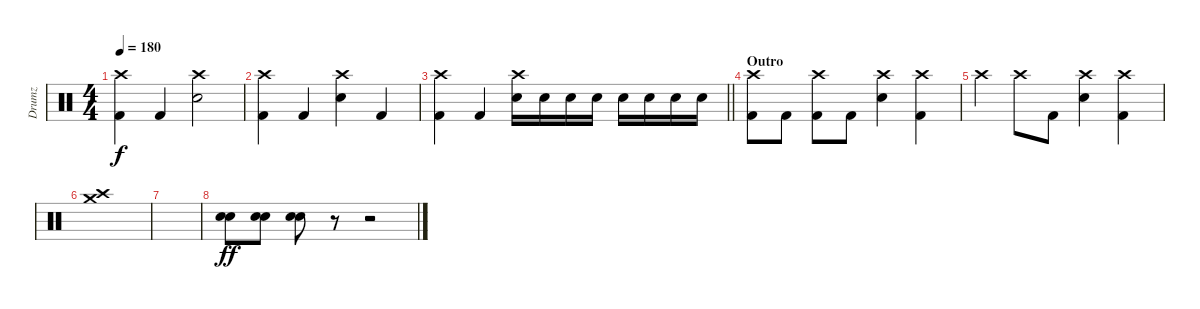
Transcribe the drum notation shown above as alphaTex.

\track ("Drumz" "Drumz") {instrument percussion}
\staff {score}
\articulation defaults
\ts (4 4)
\tempo 180
\clef neutral
\ks c
("Crash high (hit)" "Kick (hit) 2").4{dy f} "Kick (hit) 2".4 ("Crash high (hit)" "Snare (hit) 2").2 |
("Kick (hit) 2" "Crash high (hit)").4 "Kick (hit) 2".4 ("Snare (hit) 2" "Crash high (hit)").4 "Kick (hit) 2".4 |
\barLineRight lightlight
("Crash high (hit)" "Kick (hit) 2").4 "Kick (hit) 2".4 ("Crash high (hit)" "Electric Snare (hit)").16 "Electric Snare (hit)".16 "Electric Snare (hit)".16 "Electric Snare (hit)".16 "Electric Snare (hit)".16 "Electric Snare (hit)".16 "Electric Snare (hit)".16 "Electric Snare (hit)".16 |
\section ("" "Outro")
("Kick (hit) 2" "Crash high (hit)").8 "Kick (hit) 2".8 ("Kick (hit) 2" "Crash high (hit)").8 "Kick (hit) 2".8 ("Crash high (hit)" "Snare (hit) 2").4 ("Kick (hit) 2" "Crash high (hit)").4 |
"Crash high (hit)".4 "Crash high (hit)".8 "Kick (hit) 2".8 ("Crash high (hit)" "Snare (hit) 2").4 ("Kick (hit) 2" "Crash high (hit)").4 |
("Crash high (hit)" "Crash medium (hit)").1 |
|
("Electric Snare (hit)" "Electric Snare (hit)").8{dy ff} ("Electric Snare (hit)" "Electric Snare (hit)").8 ("Electric Snare (hit)" "Electric Snare (hit)").8 r.8 r.2
